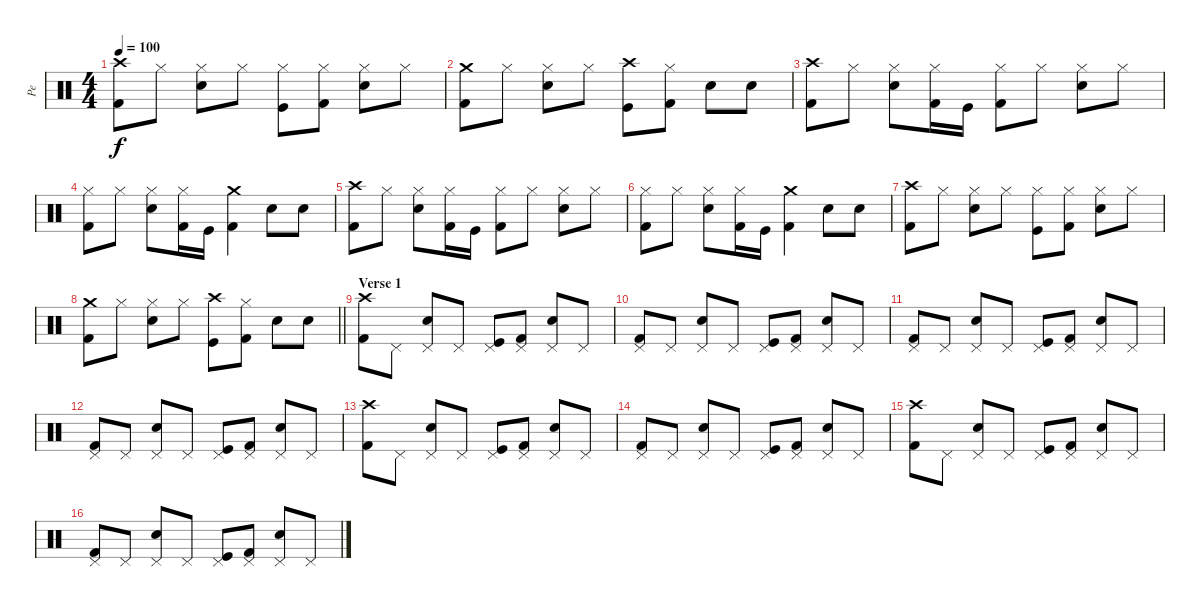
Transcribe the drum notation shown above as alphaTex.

\track ("Pe" "Pe") {instrument percussion}
\staff {score}
\articulation defaults
\ts (4 4)
\tempo 100
\clef neutral
\ks c
("Kick (hit) 2" "Crash high (hit)").8{dy f} "Hi-Hat (closed)".8 ("Electric Snare (hit)" "Hi-Hat (closed)").8 "Hi-Hat (closed)".8 ("Kick (hit)" "Hi-Hat (closed)").8 ("Kick (hit) 2" "Hi-Hat (closed)").8 ("Electric Snare (hit)" "Hi-Hat (closed)").8 "Hi-Hat (closed)".8 |
("Kick (hit) 2" "Crash medium (hit)").8 "Hi-Hat (closed)".8 ("Electric Snare (hit)" "Hi-Hat (closed)").8 "Hi-Hat (closed)".8 ("Kick (hit)" "Crash high (hit)").8 ("Kick (hit) 2" "Hi-Hat (closed)").8 "Electric Snare (hit)".8 "Electric Snare (hit)".8 |
("Kick (hit) 2" "Crash high (hit)").8 "Hi-Hat (closed)".8 ("Electric Snare (hit)" "Hi-Hat (closed)").8 ("Kick (hit) 2" "Hi-Hat (closed)").16 "Kick (hit)".16 ("Kick (hit) 2" "Hi-Hat (closed)").8 "Hi-Hat (closed)".8 ("Electric Snare (hit)" "Hi-Hat (closed)").8 "Hi-Hat (closed)".8 |
("Kick (hit) 2" "Hi-Hat (closed)").8 "Hi-Hat (closed)".8 ("Electric Snare (hit)" "Hi-Hat (closed)").8 ("Kick (hit) 2" "Hi-Hat (closed)").16 "Kick (hit)".16 ("Kick (hit) 2" "Crash medium (hit)").4 "Electric Snare (hit)".8 "Electric Snare (hit)".8 |
("Kick (hit) 2" "Crash high (hit)").8 "Hi-Hat (closed)".8 ("Electric Snare (hit)" "Hi-Hat (closed)").8 ("Kick (hit) 2" "Hi-Hat (closed)").16 "Kick (hit)".16 ("Kick (hit) 2" "Hi-Hat (closed)").8 "Hi-Hat (closed)".8 ("Electric Snare (hit)" "Hi-Hat (closed)").8 "Hi-Hat (closed)".8 |
("Kick (hit) 2" "Hi-Hat (closed)").8 "Hi-Hat (closed)".8 ("Electric Snare (hit)" "Hi-Hat (closed)").8 ("Kick (hit) 2" "Hi-Hat (closed)").16 "Kick (hit)".16 ("Kick (hit) 2" "Crash medium (hit)").4 "Electric Snare (hit)".8 "Electric Snare (hit)".8 |
("Kick (hit) 2" "Crash high (hit)").8 "Hi-Hat (closed)".8 ("Electric Snare (hit)" "Hi-Hat (closed)").8 "Hi-Hat (closed)".8 ("Kick (hit)" "Hi-Hat (closed)").8 ("Kick (hit) 2" "Hi-Hat (closed)").8 ("Electric Snare (hit)" "Hi-Hat (closed)").8 "Hi-Hat (closed)".8 |
\barLineRight lightlight
("Kick (hit) 2" "Crash medium (hit)").8 "Hi-Hat (closed)".8 ("Electric Snare (hit)" "Hi-Hat (closed)").8 "Hi-Hat (closed)".8 ("Kick (hit)" "Crash high (hit)").8 ("Kick (hit) 2" "Hi-Hat (closed)").8 "Electric Snare (hit)".8 "Electric Snare (hit)".8 |
\section ("" "Verse 1")
("Kick (hit) 2" "Crash high (hit)").8 "Pedal Hi-Hat (hit)".8 ("Electric Snare (hit)" "Pedal Hi-Hat (hit)").8 "Pedal Hi-Hat (hit)".8 ("Kick (hit)" "Pedal Hi-Hat (hit)").8 ("Kick (hit) 2" "Pedal Hi-Hat (hit)").8 ("Electric Snare (hit)" "Pedal Hi-Hat (hit)").8 "Pedal Hi-Hat (hit)".8 |
("Kick (hit) 2" "Pedal Hi-Hat (hit)").8 "Pedal Hi-Hat (hit)".8 ("Electric Snare (hit)" "Pedal Hi-Hat (hit)").8 "Pedal Hi-Hat (hit)".8 ("Kick (hit)" "Pedal Hi-Hat (hit)").8 ("Kick (hit) 2" "Pedal Hi-Hat (hit)").8 ("Electric Snare (hit)" "Pedal Hi-Hat (hit)").8 "Pedal Hi-Hat (hit)".8 |
("Kick (hit) 2" "Pedal Hi-Hat (hit)").8 "Pedal Hi-Hat (hit)".8 ("Electric Snare (hit)" "Pedal Hi-Hat (hit)").8 "Pedal Hi-Hat (hit)".8 ("Kick (hit)" "Pedal Hi-Hat (hit)").8 ("Kick (hit) 2" "Pedal Hi-Hat (hit)").8 ("Electric Snare (hit)" "Pedal Hi-Hat (hit)").8 "Pedal Hi-Hat (hit)".8 |
("Kick (hit) 2" "Pedal Hi-Hat (hit)").8 "Pedal Hi-Hat (hit)".8 ("Electric Snare (hit)" "Pedal Hi-Hat (hit)").8 "Pedal Hi-Hat (hit)".8 ("Kick (hit)" "Pedal Hi-Hat (hit)").8 ("Kick (hit) 2" "Pedal Hi-Hat (hit)").8 ("Electric Snare (hit)" "Pedal Hi-Hat (hit)").8 "Pedal Hi-Hat (hit)".8 |
("Kick (hit) 2" "Crash high (hit)").8 "Pedal Hi-Hat (hit)".8 ("Electric Snare (hit)" "Pedal Hi-Hat (hit)").8 "Pedal Hi-Hat (hit)".8 ("Kick (hit)" "Pedal Hi-Hat (hit)").8 ("Kick (hit) 2" "Pedal Hi-Hat (hit)").8 ("Electric Snare (hit)" "Pedal Hi-Hat (hit)").8 "Pedal Hi-Hat (hit)".8 |
("Kick (hit) 2" "Pedal Hi-Hat (hit)").8 "Pedal Hi-Hat (hit)".8 ("Electric Snare (hit)" "Pedal Hi-Hat (hit)").8 "Pedal Hi-Hat (hit)".8 ("Kick (hit)" "Pedal Hi-Hat (hit)").8 ("Kick (hit) 2" "Pedal Hi-Hat (hit)").8 ("Electric Snare (hit)" "Pedal Hi-Hat (hit)").8 "Pedal Hi-Hat (hit)".8 |
("Kick (hit) 2" "Crash high (hit)").8 "Pedal Hi-Hat (hit)".8 ("Electric Snare (hit)" "Pedal Hi-Hat (hit)").8 "Pedal Hi-Hat (hit)".8 ("Kick (hit)" "Pedal Hi-Hat (hit)").8 ("Kick (hit) 2" "Pedal Hi-Hat (hit)").8 ("Electric Snare (hit)" "Pedal Hi-Hat (hit)").8 "Pedal Hi-Hat (hit)".8 |
("Kick (hit) 2" "Pedal Hi-Hat (hit)").8 "Pedal Hi-Hat (hit)".8 ("Electric Snare (hit)" "Pedal Hi-Hat (hit)").8 "Pedal Hi-Hat (hit)".8 ("Kick (hit)" "Pedal Hi-Hat (hit)").8 ("Kick (hit) 2" "Pedal Hi-Hat (hit)").8 ("Electric Snare (hit)" "Pedal Hi-Hat (hit)").8 "Pedal Hi-Hat (hit)".8
